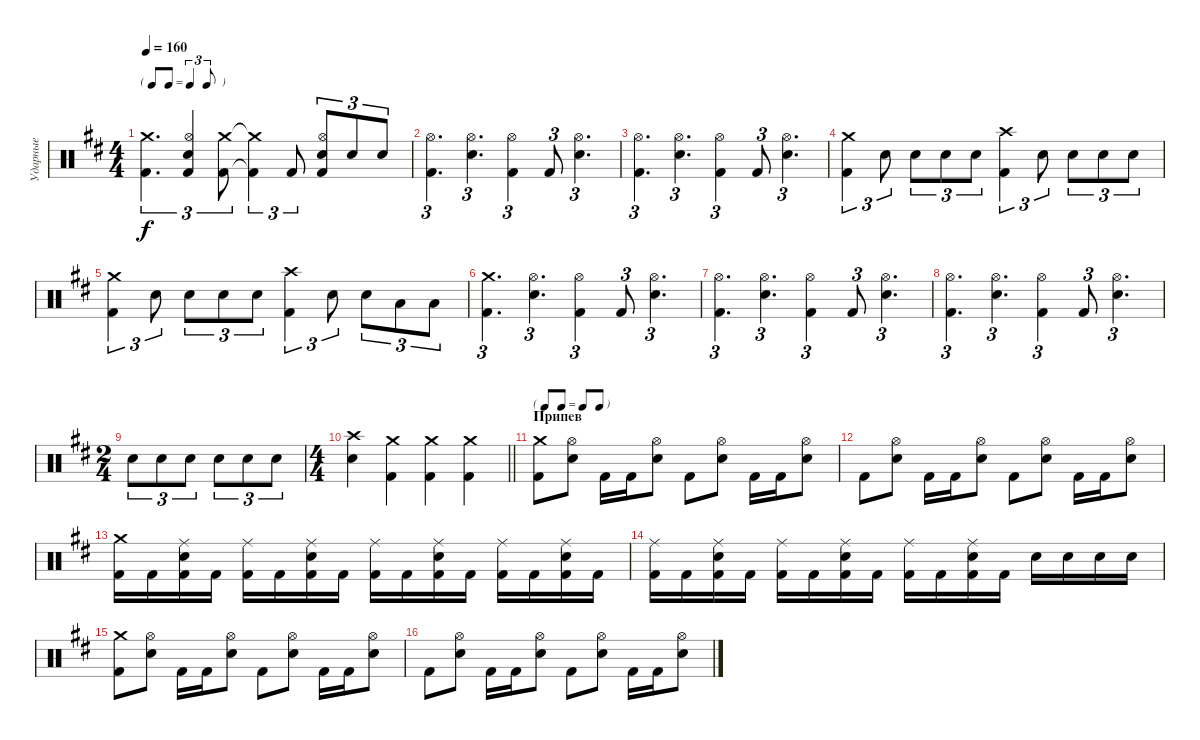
\track ("Ударные" "Ударные") {instrument percussion}
\staff {score}
\articulation defaults
\ts (4 4)
\tf triplet8th
\tempo 160
\clef neutral
\ks bminor
("Crash medium (hit)" "Kick (hit) 2").4{d tu (3 2) dy f} ("Hi-Hat (open)" "Kick (hit) 2" "Snare (hit) 2").4{tu (3 2)} ("Crash medium (hit)" "Kick (hit) 2").8{tu (3 2)} ("Crash medium (hit)"{t} "Kick (hit) 2"{t}).4{tu (3 2)} "Kick (hit) 2".8{tu (3 2)} ("Kick (hit) 2" "Hi-Hat (open)" "Snare (hit) 2").8{tu (3 2)} "Snare (hit) 2".8{tu (3 2)} "Snare (hit) 2".8{tu (3 2)} |
("Hi-Hat (open)" "Kick (hit) 2").4{d tu (3 2)} ("Hi-Hat (open)" "Snare (hit) 2").4{d tu (3 2)} ("Hi-Hat (open)" "Kick (hit) 2").4{tu (3 2)} "Kick (hit) 2".8{tu (3 2)} ("Hi-Hat (open)" "Snare (hit) 2").4{d tu (3 2)} |
("Hi-Hat (open)" "Kick (hit) 2").4{d tu (3 2)} ("Hi-Hat (open)" "Snare (hit) 2").4{d tu (3 2)} ("Hi-Hat (open)" "Kick (hit) 2").4{tu (3 2)} "Kick (hit) 2".8{tu (3 2)} ("Hi-Hat (open)" "Snare (hit) 2").4{d tu (3 2)} |
("Crash medium (hit)" "Kick (hit) 2").4{tu (3 2)} "Snare (hit) 2".8{tu (3 2)} "Snare (hit) 2".8{tu (3 2)} "Snare (hit) 2".8{tu (3 2)} "Snare (hit) 2".8{tu (3 2)} ("Kick (hit) 2" "Crash high (hit)").4{tu (3 2)} "Snare (hit) 2".8{tu (3 2)} "Snare (hit) 2".8{tu (3 2)} "Snare (hit) 2".8{tu (3 2)} "Snare (hit) 2".8{tu (3 2)} |
("Crash medium (hit)" "Kick (hit) 2").4{tu (3 2)} "Snare (hit) 2".8{tu (3 2)} "Snare (hit) 2".8{tu (3 2)} "Snare (hit) 2".8{tu (3 2)} "Snare (hit) 2".8{tu (3 2)} ("Kick (hit) 2" "Crash high (hit)").4{tu (3 2)} "Snare (hit) 2".8{tu (3 2)} "Snare (hit) 2".8{tu (3 2)} "Low Tom (hit)".8{tu (3 2)} "Low Tom (hit)".8{tu (3 2)} |
("Crash medium (hit)" "Kick (hit) 2").4{d tu (3 2)} ("Hi-Hat (open)" "Snare (hit) 2").4{d tu (3 2)} ("Hi-Hat (open)" "Kick (hit) 2").4{tu (3 2)} "Kick (hit) 2".8{tu (3 2)} ("Hi-Hat (open)" "Snare (hit) 2").4{d tu (3 2)} |
("Hi-Hat (open)" "Kick (hit) 2").4{d tu (3 2)} ("Hi-Hat (open)" "Snare (hit) 2").4{d tu (3 2)} ("Hi-Hat (open)" "Kick (hit) 2").4{tu (3 2)} "Kick (hit) 2".8{tu (3 2)} ("Hi-Hat (open)" "Snare (hit) 2").4{d tu (3 2)} |
("Hi-Hat (open)" "Kick (hit) 2").4{d tu (3 2)} ("Hi-Hat (open)" "Snare (hit) 2").4{d tu (3 2)} ("Hi-Hat (open)" "Kick (hit) 2").4{tu (3 2)} "Kick (hit) 2".8{tu (3 2)} ("Hi-Hat (open)" "Snare (hit) 2").4{d tu (3 2)} |
\ts (2 4)
"Snare (hit) 2".8{tu (3 2)} "Snare (hit) 2".8{tu (3 2)} "Snare (hit) 2".8{tu (3 2)} "Snare (hit) 2".8{tu (3 2)} "Snare (hit) 2".8{tu (3 2)} "Snare (hit) 2".8{tu (3 2)} |
\ts (4 4)
\barLineRight lightlight
("Crash high (hit)" "Snare (hit) 2").4 ("Crash medium (hit)" "Kick (hit) 2").4 ("Kick (hit) 2" "Crash medium (hit)").4 ("Kick (hit) 2" "Crash medium (hit)").4 |
\tf none
\section ("" "Припев")
("Crash medium (hit)" "Kick (hit) 2").8 ("Hi-Hat (open)" "Snare (hit) 2").8 "Kick (hit) 2".16 "Kick (hit) 2".16 ("Hi-Hat (open)" "Snare (hit) 2").8 "Kick (hit) 2".8 ("Hi-Hat (open)" "Snare (hit) 2").8 "Kick (hit) 2".16 "Kick (hit) 2".16 ("Hi-Hat (open)" "Snare (hit) 2").8 |
"Kick (hit) 2".8 ("Hi-Hat (open)" "Snare (hit) 2").8 "Kick (hit) 2".16 "Kick (hit) 2".16 ("Hi-Hat (open)" "Snare (hit) 2").8 "Kick (hit) 2".8 ("Hi-Hat (open)" "Snare (hit) 2").8 "Kick (hit) 2".16 "Kick (hit) 2".16 ("Hi-Hat (open)" "Snare (hit) 2").8 |
("Kick (hit) 2" "Crash medium (hit)").16 "Kick (hit) 2".16 ("Snare (hit) 2" "Kick (hit) 2" "Ride (middle)").16 "Kick (hit) 2".16 ("Kick (hit) 2" "Ride (middle)").16 "Kick (hit) 2".16 ("Snare (hit) 2" "Kick (hit) 2" "Ride (middle)").16 "Kick (hit) 2".16 ("Kick (hit) 2" "Ride (middle)").16 "Kick (hit) 2".16 ("Snare (hit) 2" "Kick (hit) 2" "Ride (middle)").16 "Kick (hit) 2".16 ("Kick (hit) 2" "Ride (middle)").16 "Kick (hit) 2".16 ("Snare (hit) 2" "Kick (hit) 2" "Ride (middle)").16 "Kick (hit) 2".16 |
("Kick (hit) 2" "Ride (middle)").16 "Kick (hit) 2".16 ("Snare (hit) 2" "Kick (hit) 2" "Ride (middle)").16 "Kick (hit) 2".16 ("Kick (hit) 2" "Ride (middle)").16 "Kick (hit) 2".16 ("Snare (hit) 2" "Kick (hit) 2" "Ride (middle)").16 "Kick (hit) 2".16 ("Kick (hit) 2" "Ride (middle)").16 "Kick (hit) 2".16 ("Snare (hit) 2" "Kick (hit) 2" "Ride (middle)").16 "Kick (hit) 2".16 "Snare (hit) 2".16 "Snare (hit) 2".16 "Snare (hit) 2".16 "Snare (hit) 2".16 |
("Crash medium (hit)" "Kick (hit) 2").8 ("Hi-Hat (open)" "Snare (hit) 2").8 "Kick (hit) 2".16 "Kick (hit) 2".16 ("Hi-Hat (open)" "Snare (hit) 2").8 "Kick (hit) 2".8 ("Hi-Hat (open)" "Snare (hit) 2").8 "Kick (hit) 2".16 "Kick (hit) 2".16 ("Hi-Hat (open)" "Snare (hit) 2").8 |
"Kick (hit) 2".8 ("Hi-Hat (open)" "Snare (hit) 2").8 "Kick (hit) 2".16 "Kick (hit) 2".16 ("Hi-Hat (open)" "Snare (hit) 2").8 "Kick (hit) 2".8 ("Hi-Hat (open)" "Snare (hit) 2").8 "Kick (hit) 2".16 "Kick (hit) 2".16 ("Hi-Hat (open)" "Snare (hit) 2").8
